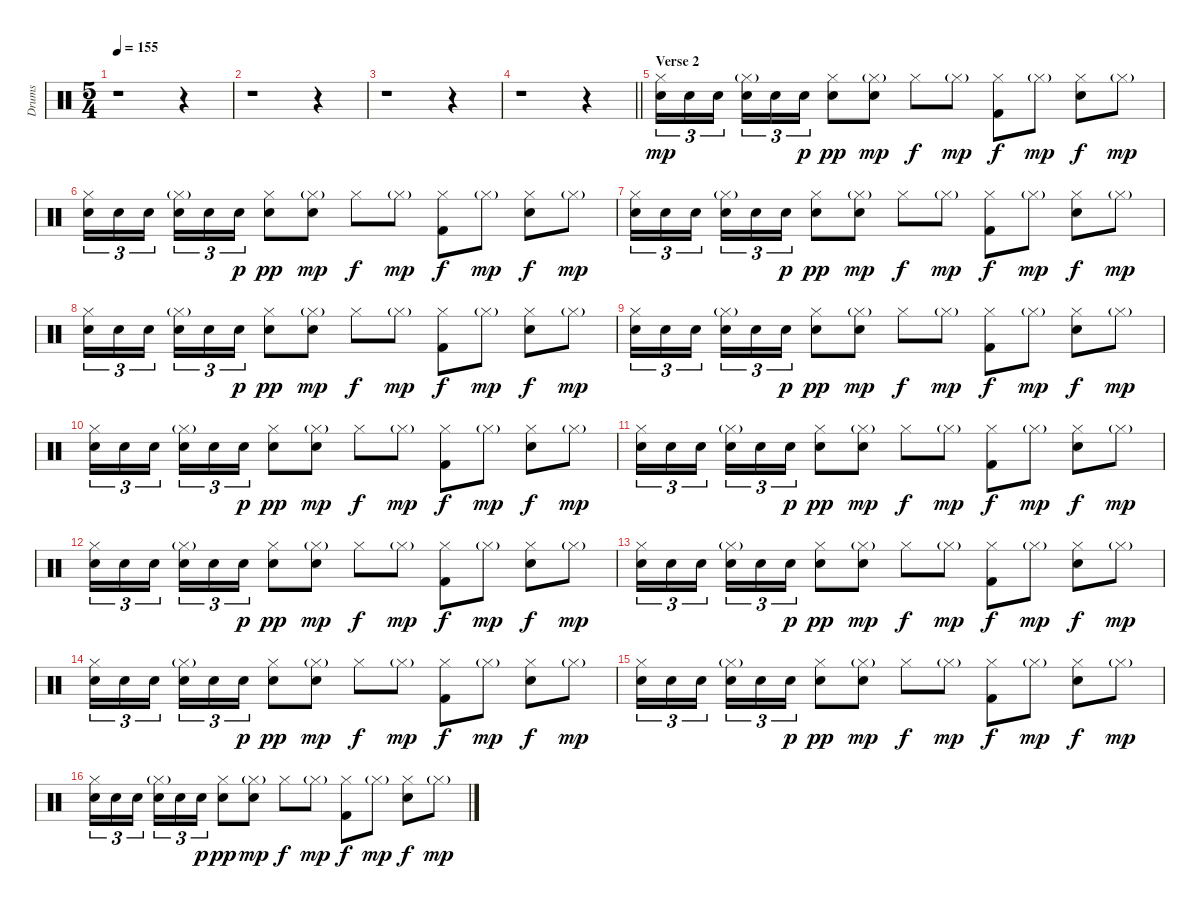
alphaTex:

\track ("Drums" "Drums") {instrument percussion}
\staff {score}
\articulation defaults
\ts (5 4)
\tempo 155
\clef neutral
\ks c
r.1{dy mp} r.4 |
r.1 r.4 |
r.1 r.4 |
\barLineRight lightlight
r.1 r.4 |
\section ("" "Verse 2")
("Hi-Hat (closed)" "Electric Snare (hit)").16{tu (3 2)} "Electric Snare (hit)".16{tu (3 2)} "Electric Snare (hit)".16{tu (3 2) beam splitsecondary} ("Hi-Hat (closed)"{g} "Electric Snare (hit)").16{tu (3 2)} "Electric Snare (hit)".16{tu (3 2)} "Electric Snare (hit)".16{tu (3 2) dy p} ("Hi-Hat (closed)" "Electric Snare (hit)").8{dy pp} ("Hi-Hat (closed)"{g} "Electric Snare (hit)").8{dy mp} "Hi-Hat (closed)".8{dy f} "Hi-Hat (closed)"{g}.8{dy mp} ("Hi-Hat (closed)" "Kick (hit) 2").8{dy f} "Hi-Hat (closed)"{g}.8{dy mp} ("Hi-Hat (closed)" "Electric Snare (hit)").8{dy f} "Hi-Hat (closed)"{g}.8{dy mp} |
("Hi-Hat (closed)" "Electric Snare (hit)").16{tu (3 2)} "Electric Snare (hit)".16{tu (3 2)} "Electric Snare (hit)".16{tu (3 2) beam splitsecondary} ("Hi-Hat (closed)"{g} "Electric Snare (hit)").16{tu (3 2)} "Electric Snare (hit)".16{tu (3 2)} "Electric Snare (hit)".16{tu (3 2) dy p} ("Hi-Hat (closed)" "Electric Snare (hit)").8{dy pp} ("Hi-Hat (closed)"{g} "Electric Snare (hit)").8{dy mp} "Hi-Hat (closed)".8{dy f} "Hi-Hat (closed)"{g}.8{dy mp} ("Hi-Hat (closed)" "Kick (hit) 2").8{dy f} "Hi-Hat (closed)"{g}.8{dy mp} ("Hi-Hat (closed)" "Electric Snare (hit)").8{dy f} "Hi-Hat (closed)"{g}.8{dy mp} |
("Hi-Hat (closed)" "Electric Snare (hit)").16{tu (3 2)} "Electric Snare (hit)".16{tu (3 2)} "Electric Snare (hit)".16{tu (3 2) beam splitsecondary} ("Hi-Hat (closed)"{g} "Electric Snare (hit)").16{tu (3 2)} "Electric Snare (hit)".16{tu (3 2)} "Electric Snare (hit)".16{tu (3 2) dy p} ("Hi-Hat (closed)" "Electric Snare (hit)").8{dy pp} ("Hi-Hat (closed)"{g} "Electric Snare (hit)").8{dy mp} "Hi-Hat (closed)".8{dy f} "Hi-Hat (closed)"{g}.8{dy mp} ("Hi-Hat (closed)" "Kick (hit) 2").8{dy f} "Hi-Hat (closed)"{g}.8{dy mp} ("Hi-Hat (closed)" "Electric Snare (hit)").8{dy f} "Hi-Hat (closed)"{g}.8{dy mp} |
("Hi-Hat (closed)" "Electric Snare (hit)").16{tu (3 2)} "Electric Snare (hit)".16{tu (3 2)} "Electric Snare (hit)".16{tu (3 2) beam splitsecondary} ("Hi-Hat (closed)"{g} "Electric Snare (hit)").16{tu (3 2)} "Electric Snare (hit)".16{tu (3 2)} "Electric Snare (hit)".16{tu (3 2) dy p} ("Hi-Hat (closed)" "Electric Snare (hit)").8{dy pp} ("Hi-Hat (closed)"{g} "Electric Snare (hit)").8{dy mp} "Hi-Hat (closed)".8{dy f} "Hi-Hat (closed)"{g}.8{dy mp} ("Hi-Hat (closed)" "Kick (hit) 2").8{dy f} "Hi-Hat (closed)"{g}.8{dy mp} ("Hi-Hat (closed)" "Electric Snare (hit)").8{dy f} "Hi-Hat (closed)"{g}.8{dy mp} |
("Hi-Hat (closed)" "Electric Snare (hit)").16{tu (3 2)} "Electric Snare (hit)".16{tu (3 2)} "Electric Snare (hit)".16{tu (3 2) beam splitsecondary} ("Hi-Hat (closed)"{g} "Electric Snare (hit)").16{tu (3 2)} "Electric Snare (hit)".16{tu (3 2)} "Electric Snare (hit)".16{tu (3 2) dy p} ("Hi-Hat (closed)" "Electric Snare (hit)").8{dy pp} ("Hi-Hat (closed)"{g} "Electric Snare (hit)").8{dy mp} "Hi-Hat (closed)".8{dy f} "Hi-Hat (closed)"{g}.8{dy mp} ("Hi-Hat (closed)" "Kick (hit) 2").8{dy f} "Hi-Hat (closed)"{g}.8{dy mp} ("Hi-Hat (closed)" "Electric Snare (hit)").8{dy f} "Hi-Hat (closed)"{g}.8{dy mp} |
("Hi-Hat (closed)" "Electric Snare (hit)").16{tu (3 2)} "Electric Snare (hit)".16{tu (3 2)} "Electric Snare (hit)".16{tu (3 2) beam splitsecondary} ("Hi-Hat (closed)"{g} "Electric Snare (hit)").16{tu (3 2)} "Electric Snare (hit)".16{tu (3 2)} "Electric Snare (hit)".16{tu (3 2) dy p} ("Hi-Hat (closed)" "Electric Snare (hit)").8{dy pp} ("Hi-Hat (closed)"{g} "Electric Snare (hit)").8{dy mp} "Hi-Hat (closed)".8{dy f} "Hi-Hat (closed)"{g}.8{dy mp} ("Hi-Hat (closed)" "Kick (hit) 2").8{dy f} "Hi-Hat (closed)"{g}.8{dy mp} ("Hi-Hat (closed)" "Electric Snare (hit)").8{dy f} "Hi-Hat (closed)"{g}.8{dy mp} |
("Hi-Hat (closed)" "Electric Snare (hit)").16{tu (3 2)} "Electric Snare (hit)".16{tu (3 2)} "Electric Snare (hit)".16{tu (3 2) beam splitsecondary} ("Hi-Hat (closed)"{g} "Electric Snare (hit)").16{tu (3 2)} "Electric Snare (hit)".16{tu (3 2)} "Electric Snare (hit)".16{tu (3 2) dy p} ("Hi-Hat (closed)" "Electric Snare (hit)").8{dy pp} ("Hi-Hat (closed)"{g} "Electric Snare (hit)").8{dy mp} "Hi-Hat (closed)".8{dy f} "Hi-Hat (closed)"{g}.8{dy mp} ("Hi-Hat (closed)" "Kick (hit) 2").8{dy f} "Hi-Hat (closed)"{g}.8{dy mp} ("Hi-Hat (closed)" "Electric Snare (hit)").8{dy f} "Hi-Hat (closed)"{g}.8{dy mp} |
("Hi-Hat (closed)" "Electric Snare (hit)").16{tu (3 2)} "Electric Snare (hit)".16{tu (3 2)} "Electric Snare (hit)".16{tu (3 2) beam splitsecondary} ("Hi-Hat (closed)"{g} "Electric Snare (hit)").16{tu (3 2)} "Electric Snare (hit)".16{tu (3 2)} "Electric Snare (hit)".16{tu (3 2) dy p} ("Hi-Hat (closed)" "Electric Snare (hit)").8{dy pp} ("Hi-Hat (closed)"{g} "Electric Snare (hit)").8{dy mp} "Hi-Hat (closed)".8{dy f} "Hi-Hat (closed)"{g}.8{dy mp} ("Hi-Hat (closed)" "Kick (hit) 2").8{dy f} "Hi-Hat (closed)"{g}.8{dy mp} ("Hi-Hat (closed)" "Electric Snare (hit)").8{dy f} "Hi-Hat (closed)"{g}.8{dy mp} |
("Hi-Hat (closed)" "Electric Snare (hit)").16{tu (3 2)} "Electric Snare (hit)".16{tu (3 2)} "Electric Snare (hit)".16{tu (3 2) beam splitsecondary} ("Hi-Hat (closed)"{g} "Electric Snare (hit)").16{tu (3 2)} "Electric Snare (hit)".16{tu (3 2)} "Electric Snare (hit)".16{tu (3 2) dy p} ("Hi-Hat (closed)" "Electric Snare (hit)").8{dy pp} ("Hi-Hat (closed)"{g} "Electric Snare (hit)").8{dy mp} "Hi-Hat (closed)".8{dy f} "Hi-Hat (closed)"{g}.8{dy mp} ("Hi-Hat (closed)" "Kick (hit) 2").8{dy f} "Hi-Hat (closed)"{g}.8{dy mp} ("Hi-Hat (closed)" "Electric Snare (hit)").8{dy f} "Hi-Hat (closed)"{g}.8{dy mp} |
("Hi-Hat (closed)" "Electric Snare (hit)").16{tu (3 2)} "Electric Snare (hit)".16{tu (3 2)} "Electric Snare (hit)".16{tu (3 2) beam splitsecondary} ("Hi-Hat (closed)"{g} "Electric Snare (hit)").16{tu (3 2)} "Electric Snare (hit)".16{tu (3 2)} "Electric Snare (hit)".16{tu (3 2) dy p} ("Hi-Hat (closed)" "Electric Snare (hit)").8{dy pp} ("Hi-Hat (closed)"{g} "Electric Snare (hit)").8{dy mp} "Hi-Hat (closed)".8{dy f} "Hi-Hat (closed)"{g}.8{dy mp} ("Hi-Hat (closed)" "Kick (hit) 2").8{dy f} "Hi-Hat (closed)"{g}.8{dy mp} ("Hi-Hat (closed)" "Electric Snare (hit)").8{dy f} "Hi-Hat (closed)"{g}.8{dy mp} |
("Hi-Hat (closed)" "Electric Snare (hit)").16{tu (3 2)} "Electric Snare (hit)".16{tu (3 2)} "Electric Snare (hit)".16{tu (3 2) beam splitsecondary} ("Hi-Hat (closed)"{g} "Electric Snare (hit)").16{tu (3 2)} "Electric Snare (hit)".16{tu (3 2)} "Electric Snare (hit)".16{tu (3 2) dy p} ("Hi-Hat (closed)" "Electric Snare (hit)").8{dy pp} ("Hi-Hat (closed)"{g} "Electric Snare (hit)").8{dy mp} "Hi-Hat (closed)".8{dy f} "Hi-Hat (closed)"{g}.8{dy mp} ("Hi-Hat (closed)" "Kick (hit) 2").8{dy f} "Hi-Hat (closed)"{g}.8{dy mp} ("Hi-Hat (closed)" "Electric Snare (hit)").8{dy f} "Hi-Hat (closed)"{g}.8{dy mp} |
("Hi-Hat (closed)" "Electric Snare (hit)").16{tu (3 2)} "Electric Snare (hit)".16{tu (3 2)} "Electric Snare (hit)".16{tu (3 2) beam splitsecondary} ("Hi-Hat (closed)"{g} "Electric Snare (hit)").16{tu (3 2)} "Electric Snare (hit)".16{tu (3 2)} "Electric Snare (hit)".16{tu (3 2) dy p} ("Hi-Hat (closed)" "Electric Snare (hit)").8{dy pp} ("Hi-Hat (closed)"{g} "Electric Snare (hit)").8{dy mp} "Hi-Hat (closed)".8{dy f} "Hi-Hat (closed)"{g}.8{dy mp} ("Hi-Hat (closed)" "Kick (hit) 2").8{dy f} "Hi-Hat (closed)"{g}.8{dy mp} ("Hi-Hat (closed)" "Electric Snare (hit)").8{dy f} "Hi-Hat (closed)"{g}.8{dy mp}
